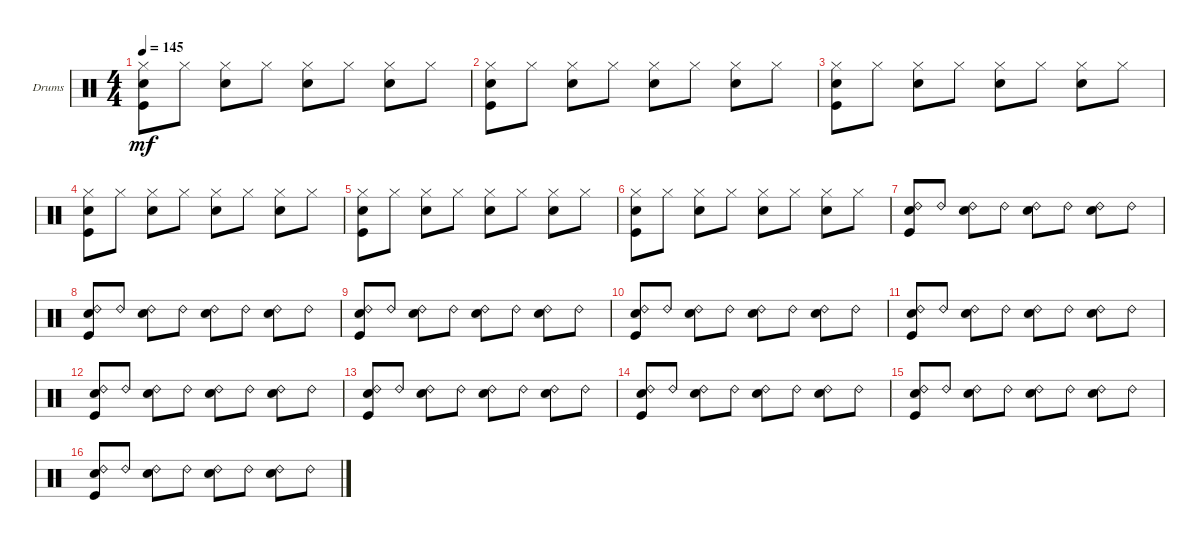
\bracketExtendMode groupsimilarinstruments
\firstSystemTrackNameOrientation horizontal
\otherSystemsTrackNameOrientation horizontal
\track ("Drumkit" "Drums") {instrument percussion}
\staff {score}
\articulation defaults
\ts (4 4)
\tempo 145
\clef neutral
\ks c
("Hi-Hat (closed)" "Kick (hit)" "Snare (hit) 2").8{dy mf} "Hi-Hat (closed)".8 ("Hi-Hat (closed)" "Snare (hit) 2").8 "Hi-Hat (closed)".8 ("Hi-Hat (closed)" "Snare (hit) 2").8 "Hi-Hat (closed)".8 ("Hi-Hat (closed)" "Snare (hit) 2").8 "Hi-Hat (closed)".8 |
("Hi-Hat (closed)" "Kick (hit)" "Snare (hit) 2").8 "Hi-Hat (closed)".8 ("Hi-Hat (closed)" "Snare (hit) 2").8 "Hi-Hat (closed)".8 ("Hi-Hat (closed)" "Snare (hit) 2").8 "Hi-Hat (closed)".8 ("Hi-Hat (closed)" "Snare (hit) 2").8 "Hi-Hat (closed)".8 |
("Hi-Hat (closed)" "Kick (hit)" "Snare (hit) 2").8 "Hi-Hat (closed)".8 ("Hi-Hat (closed)" "Snare (hit) 2").8 "Hi-Hat (closed)".8 ("Hi-Hat (closed)" "Snare (hit) 2").8 "Hi-Hat (closed)".8 ("Hi-Hat (closed)" "Snare (hit) 2").8 "Hi-Hat (closed)".8 |
("Hi-Hat (closed)" "Kick (hit)" "Snare (hit) 2").8 "Hi-Hat (closed)".8 ("Hi-Hat (closed)" "Snare (hit) 2").8 "Hi-Hat (closed)".8 ("Hi-Hat (closed)" "Snare (hit) 2").8 "Hi-Hat (closed)".8 ("Hi-Hat (closed)" "Snare (hit) 2").8 "Hi-Hat (closed)".8 |
("Hi-Hat (closed)" "Kick (hit)" "Snare (hit) 2").8 "Hi-Hat (closed)".8 ("Hi-Hat (closed)" "Snare (hit) 2").8 "Hi-Hat (closed)".8 ("Hi-Hat (closed)" "Snare (hit) 2").8 "Hi-Hat (closed)".8 ("Hi-Hat (closed)" "Snare (hit) 2").8 "Hi-Hat (closed)".8 |
("Hi-Hat (closed)" "Kick (hit)" "Snare (hit) 2").8 "Hi-Hat (closed)".8 ("Hi-Hat (closed)" "Snare (hit) 2").8 "Hi-Hat (closed)".8 ("Hi-Hat (closed)" "Snare (hit) 2").8 "Hi-Hat (closed)".8 ("Hi-Hat (closed)" "Snare (hit) 2").8 "Hi-Hat (closed)".8 |
("Kick (hit)" "Snare (hit) 2" "Ride (bell) 2").8 "Ride (bell) 2".8 ("Snare (hit) 2" "Ride (bell) 2").8 "Ride (bell) 2".8 ("Snare (hit) 2" "Ride (bell) 2").8 "Ride (bell) 2".8 ("Snare (hit) 2" "Ride (bell) 2").8 "Ride (bell) 2".8 |
("Kick (hit)" "Snare (hit) 2" "Ride (bell) 2").8 "Ride (bell) 2".8 ("Snare (hit) 2" "Ride (bell) 2").8 "Ride (bell) 2".8 ("Snare (hit) 2" "Ride (bell) 2").8 "Ride (bell) 2".8 ("Snare (hit) 2" "Ride (bell) 2").8 "Ride (bell) 2".8 |
("Kick (hit)" "Snare (hit) 2" "Ride (bell) 2").8 "Ride (bell) 2".8 ("Snare (hit) 2" "Ride (bell) 2").8 "Ride (bell) 2".8 ("Snare (hit) 2" "Ride (bell) 2").8 "Ride (bell) 2".8 ("Snare (hit) 2" "Ride (bell) 2").8 "Ride (bell) 2".8 |
("Kick (hit)" "Snare (hit) 2" "Ride (bell) 2").8 "Ride (bell) 2".8 ("Snare (hit) 2" "Ride (bell) 2").8 "Ride (bell) 2".8 ("Snare (hit) 2" "Ride (bell) 2").8 "Ride (bell) 2".8 ("Snare (hit) 2" "Ride (bell) 2").8 "Ride (bell) 2".8 |
("Kick (hit)" "Snare (hit) 2" "Ride (bell) 2").8 "Ride (bell) 2".8 ("Snare (hit) 2" "Ride (bell) 2").8 "Ride (bell) 2".8 ("Snare (hit) 2" "Ride (bell) 2").8 "Ride (bell) 2".8 ("Snare (hit) 2" "Ride (bell) 2").8 "Ride (bell) 2".8 |
("Kick (hit)" "Snare (hit) 2" "Ride (bell) 2").8 "Ride (bell) 2".8 ("Snare (hit) 2" "Ride (bell) 2").8 "Ride (bell) 2".8 ("Snare (hit) 2" "Ride (bell) 2").8 "Ride (bell) 2".8 ("Snare (hit) 2" "Ride (bell) 2").8 "Ride (bell) 2".8 |
("Kick (hit)" "Snare (hit) 2" "Ride (bell) 2").8 "Ride (bell) 2".8 ("Snare (hit) 2" "Ride (bell) 2").8 "Ride (bell) 2".8 ("Snare (hit) 2" "Ride (bell) 2").8 "Ride (bell) 2".8 ("Snare (hit) 2" "Ride (bell) 2").8 "Ride (bell) 2".8 |
("Kick (hit)" "Snare (hit) 2" "Ride (bell) 2").8 "Ride (bell) 2".8 ("Snare (hit) 2" "Ride (bell) 2").8 "Ride (bell) 2".8 ("Snare (hit) 2" "Ride (bell) 2").8 "Ride (bell) 2".8 ("Snare (hit) 2" "Ride (bell) 2").8 "Ride (bell) 2".8 |
("Kick (hit)" "Snare (hit) 2" "Ride (bell) 2").8 "Ride (bell) 2".8 ("Snare (hit) 2" "Ride (bell) 2").8 "Ride (bell) 2".8 ("Snare (hit) 2" "Ride (bell) 2").8 "Ride (bell) 2".8 ("Snare (hit) 2" "Ride (bell) 2").8 "Ride (bell) 2".8 |
("Kick (hit)" "Snare (hit) 2" "Ride (bell) 2").8 "Ride (bell) 2".8 ("Snare (hit) 2" "Ride (bell) 2").8 "Ride (bell) 2".8 ("Snare (hit) 2" "Ride (bell) 2").8 "Ride (bell) 2".8 ("Snare (hit) 2" "Ride (bell) 2").8 "Ride (bell) 2".8
